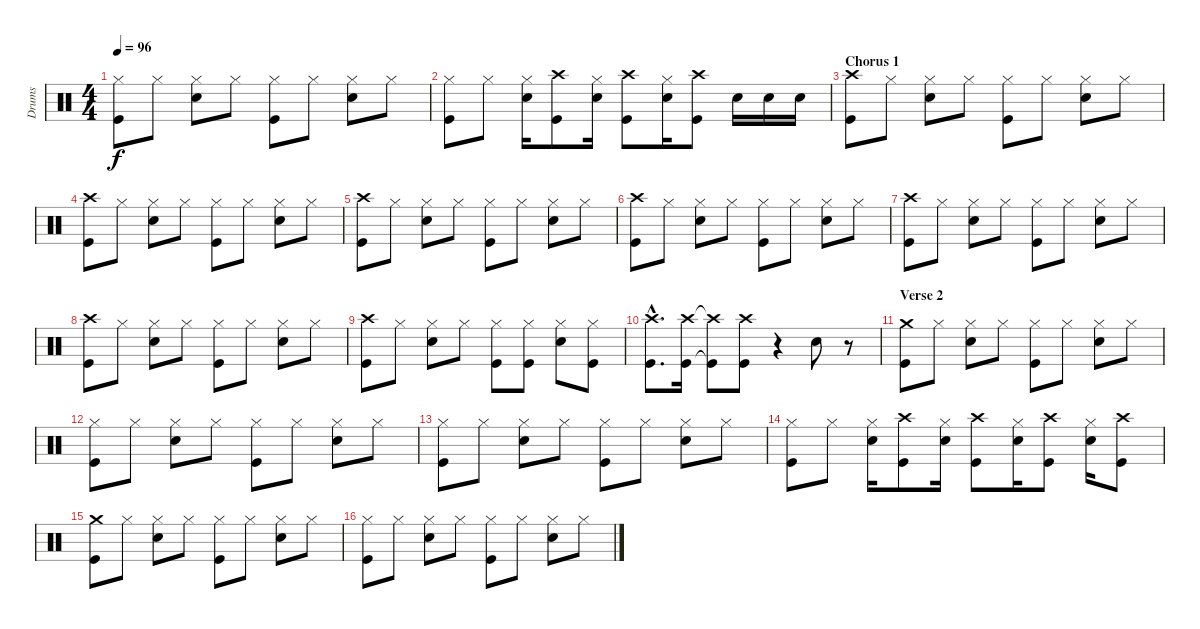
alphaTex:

\track ("Drums" "Drums") {instrument percussion}
\staff {score}
\articulation defaults
\ts (4 4)
\tempo 96
\clef neutral
\ks c
("Hi-Hat (closed)" "Kick (hit)").8{dy f} "Hi-Hat (closed)".8 ("Hi-Hat (closed)" "Electric Snare (hit)").8 "Hi-Hat (closed)".8 ("Hi-Hat (closed)" "Kick (hit)").8 "Hi-Hat (closed)".8 ("Hi-Hat (closed)" "Electric Snare (hit)").8 "Hi-Hat (closed)".8 |
("Hi-Hat (closed)" "Kick (hit)").8 "Hi-Hat (closed)".8 ("Hi-Hat (closed)" "Electric Snare (hit)").16 ("Crash high (hit)" "Kick (hit)").8 ("Hi-Hat (closed)" "Electric Snare (hit)").16 ("Crash high (hit)" "Kick (hit)").8 ("Hi-Hat (closed)" "Electric Snare (hit)").16 ("Crash high (hit)" "Kick (hit)").8 "Electric Snare (hit)".16 "Electric Snare (hit)".16 "Electric Snare (hit)".16 |
\section ("" "Chorus 1")
("Crash high (hit)" "Kick (hit)").8 "Hi-Hat (closed)".8 ("Hi-Hat (closed)" "Electric Snare (hit)").8 "Hi-Hat (closed)".8 ("Hi-Hat (closed)" "Kick (hit)").8 "Hi-Hat (closed)".8 ("Hi-Hat (closed)" "Electric Snare (hit)").8 "Hi-Hat (closed)".8 |
("Crash high (hit)" "Kick (hit)").8 "Hi-Hat (closed)".8 ("Hi-Hat (closed)" "Electric Snare (hit)").8 "Hi-Hat (closed)".8 ("Hi-Hat (closed)" "Kick (hit)").8 "Hi-Hat (closed)".8 ("Hi-Hat (closed)" "Electric Snare (hit)").8 "Hi-Hat (closed)".8 |
("Crash high (hit)" "Kick (hit)").8 "Hi-Hat (closed)".8 ("Hi-Hat (closed)" "Electric Snare (hit)").8 "Hi-Hat (closed)".8 ("Hi-Hat (closed)" "Kick (hit)").8 "Hi-Hat (closed)".8 ("Hi-Hat (closed)" "Electric Snare (hit)").8 "Hi-Hat (closed)".8 |
("Crash high (hit)" "Kick (hit)").8 "Hi-Hat (closed)".8 ("Hi-Hat (closed)" "Electric Snare (hit)").8 "Hi-Hat (closed)".8 ("Hi-Hat (closed)" "Kick (hit)").8 "Hi-Hat (closed)".8 ("Hi-Hat (closed)" "Electric Snare (hit)").8 "Hi-Hat (closed)".8 |
("Crash high (hit)" "Kick (hit)").8 "Hi-Hat (closed)".8 ("Hi-Hat (closed)" "Electric Snare (hit)").8 "Hi-Hat (closed)".8 ("Hi-Hat (closed)" "Kick (hit)").8 "Hi-Hat (closed)".8 ("Hi-Hat (closed)" "Electric Snare (hit)").8 "Hi-Hat (closed)".8 |
("Crash high (hit)" "Kick (hit)").8 "Hi-Hat (closed)".8 ("Hi-Hat (closed)" "Electric Snare (hit)").8 "Hi-Hat (closed)".8 ("Hi-Hat (closed)" "Kick (hit)").8 "Hi-Hat (closed)".8 ("Hi-Hat (closed)" "Electric Snare (hit)").8 "Hi-Hat (closed)".8 |
("Crash high (hit)" "Kick (hit)").8 "Hi-Hat (closed)".8 ("Hi-Hat (closed)" "Electric Snare (hit)").8 "Hi-Hat (closed)".8 ("Hi-Hat (closed)" "Kick (hit)").8 ("Hi-Hat (closed)" "Kick (hit)").8 ("Hi-Hat (closed)" "Electric Snare (hit)").8 ("Hi-Hat (closed)" "Kick (hit)").8 |
("Crash high (hit)"{hac} "Kick (hit)"{hac}).8{d} ("Crash high (hit)" "Kick (hit)").16 ("Crash high (hit)"{t} "Kick (hit)"{t}).8 ("Crash high (hit)" "Kick (hit)").8 r.4 "Electric Snare (hit)".8 r.8 |
\section ("" "Verse 2")
("Crash medium (hit)" "Kick (hit)").8 "Hi-Hat (closed)".8 ("Hi-Hat (closed)" "Electric Snare (hit)").8 "Hi-Hat (closed)".8 ("Hi-Hat (closed)" "Kick (hit)").8 "Hi-Hat (closed)".8 ("Hi-Hat (closed)" "Electric Snare (hit)").8 "Hi-Hat (closed)".8 |
("Hi-Hat (closed)" "Kick (hit)").8 "Hi-Hat (closed)".8 ("Hi-Hat (closed)" "Electric Snare (hit)").8 "Hi-Hat (closed)".8 ("Hi-Hat (closed)" "Kick (hit)").8 "Hi-Hat (closed)".8 ("Hi-Hat (closed)" "Electric Snare (hit)").8 "Hi-Hat (closed)".8 |
("Hi-Hat (closed)" "Kick (hit)").8 "Hi-Hat (closed)".8 ("Hi-Hat (closed)" "Electric Snare (hit)").8 "Hi-Hat (closed)".8 ("Hi-Hat (closed)" "Kick (hit)").8 "Hi-Hat (closed)".8 ("Hi-Hat (closed)" "Electric Snare (hit)").8 "Hi-Hat (closed)".8 |
("Hi-Hat (closed)" "Kick (hit)").8 "Hi-Hat (closed)".8 ("Hi-Hat (closed)" "Electric Snare (hit)").16 ("Crash high (hit)" "Kick (hit)").8 ("Hi-Hat (closed)" "Electric Snare (hit)").16 ("Crash high (hit)" "Kick (hit)").8 ("Hi-Hat (closed)" "Electric Snare (hit)").16 ("Crash high (hit)" "Kick (hit)").8 ("Hi-Hat (closed)" "Electric Snare (hit)").16 ("Crash high (hit)" "Kick (hit)").8 |
("Crash medium (hit)" "Kick (hit)").8 "Hi-Hat (closed)".8 ("Hi-Hat (closed)" "Electric Snare (hit)").8 "Hi-Hat (closed)".8 ("Hi-Hat (closed)" "Kick (hit)").8 "Hi-Hat (closed)".8 ("Hi-Hat (closed)" "Electric Snare (hit)").8 "Hi-Hat (closed)".8 |
("Hi-Hat (closed)" "Kick (hit)").8 "Hi-Hat (closed)".8 ("Hi-Hat (closed)" "Electric Snare (hit)").8 "Hi-Hat (closed)".8 ("Hi-Hat (closed)" "Kick (hit)").8 "Hi-Hat (closed)".8 ("Hi-Hat (closed)" "Electric Snare (hit)").8 "Hi-Hat (closed)".8
